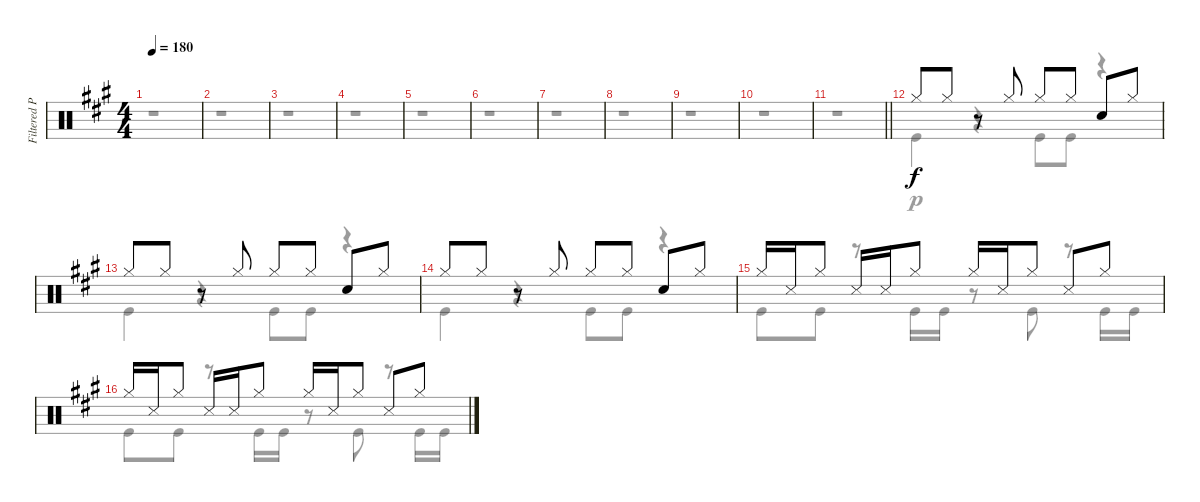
\track ("Filtered Percussion" "Filtered P") {instrument percussion}
\staff {score}
\articulation defaults
\voice
\ts (4 4)
\tempo 180
\clef neutral
\ks a
|
|
|
|
|
|
|
|
|
|
\barLineRight lightlight
|
\section ("" "")
"Hi-Hat (closed)".8 "Hi-Hat (closed)".8 r.8 "Hi-Hat (closed)".8 "Hi-Hat (closed)".8 "Hi-Hat (closed)".8 "Snare (hit) 2".8 "Hi-Hat (closed)".8 |
"Hi-Hat (closed)".8 "Hi-Hat (closed)".8 r.8 "Hi-Hat (closed)".8 "Hi-Hat (closed)".8 "Hi-Hat (closed)".8 "Snare (hit) 2".8 "Hi-Hat (closed)".8 |
"Hi-Hat (closed)".8 "Hi-Hat (closed)".8 r.8 "Hi-Hat (closed)".8 "Hi-Hat (closed)".8 "Hi-Hat (closed)".8 "Snare (hit) 2".8 "Hi-Hat (closed)".8 |
"Hi-Hat (closed)".16 "Snare (side stick) 3".16 "Hi-Hat (closed)".8 "Snare (side stick) 3".16 "Snare (side stick) 3".16 "Hi-Hat (closed)".8 "Hi-Hat (closed)".16 "Snare (side stick) 3".16 "Hi-Hat (closed)".8 "Snare (side stick) 3".8 "Hi-Hat (closed)".8 |
"Hi-Hat (closed)".16 "Snare (side stick) 3".16 "Hi-Hat (closed)".8 "Snare (side stick) 3".16 "Snare (side stick) 3".16 "Hi-Hat (closed)".8 "Hi-Hat (closed)".16 "Snare (side stick) 3".16 "Hi-Hat (closed)".8 "Snare (side stick) 3".8 "Hi-Hat (closed)".8
\voice
\clef neutral
\ottava regular
\simile none
\ks a
r.1{dy p} |
r.1 |
r.1 |
r.1 |
r.1 |
r.1 |
r.1 |
r.1 |
r.1 |
r.1 |
\barLineRight lightlight
r.1 |
"Kick (hit)".4 r.4 "Kick (hit)".8 "Kick (hit)".8 r.4 |
"Kick (hit)".4 r.4 "Kick (hit)".8 "Kick (hit)".8 r.4 |
"Kick (hit)".4 r.4 "Kick (hit)".8 "Kick (hit)".8 r.4 |
"Kick (hit)".8 "Kick (hit)".8 r.8 "Kick (hit)".16 "Kick (hit)".16 r.8 "Kick (hit)".8 r.8 "Kick (hit)".16 "Kick (hit)".16 |
"Kick (hit)".8 "Kick (hit)".8 r.8 "Kick (hit)".16 "Kick (hit)".16 r.8 "Kick (hit)".8 r.8 "Kick (hit)".16 "Kick (hit)".16
